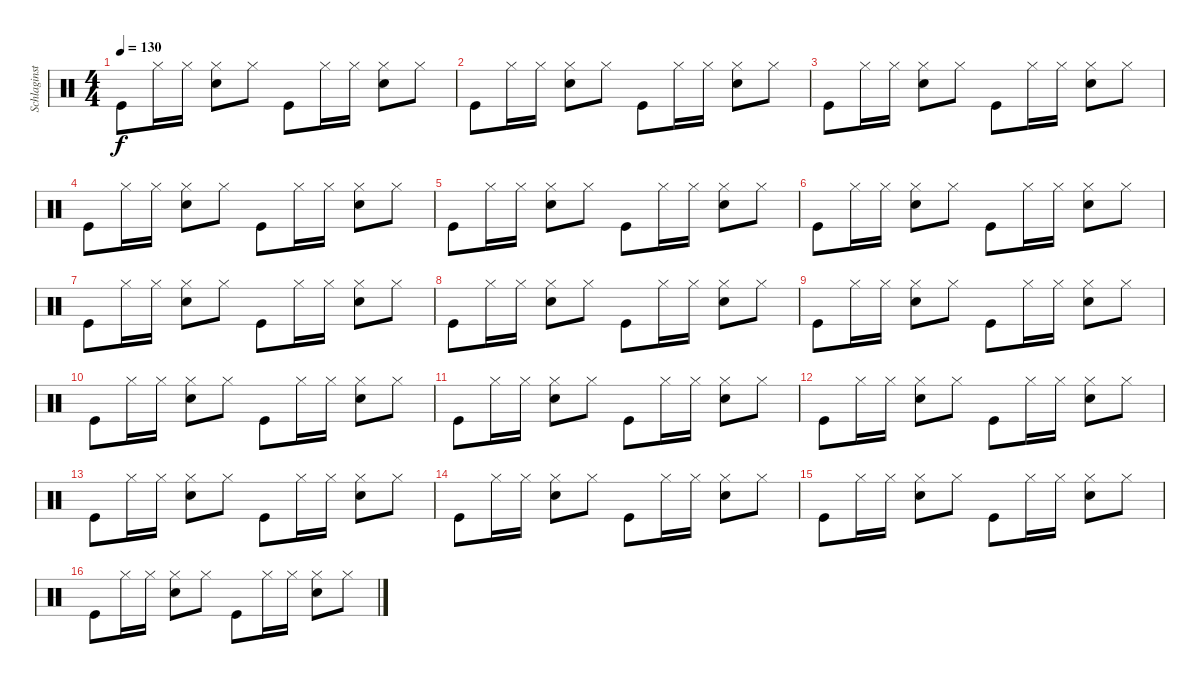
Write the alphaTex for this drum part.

\track ("Schlaginstrumente - Auswahl" "Schlaginst") {instrument percussion}
\staff {score}
\articulation defaults
\ts (4 4)
\tempo 130
\clef neutral
\ks c "Kick (hit)".8{dy f} "Hi-Hat (closed)".16 "Hi-Hat (closed)".16
("Snare (hit) 2" "Hi-Hat (closed)").8 "Hi-Hat (closed)".8 "Kick (hit)".8 "Hi-Hat (closed)".16 "Hi-Hat (closed)".16 ("Snare (hit) 2" "Hi-Hat (closed)").8 "Hi-Hat (closed)".8 |
"Kick (hit)".8 "Hi-Hat (closed)".16 "Hi-Hat (closed)".16 ("Snare (hit) 2" "Hi-Hat (closed)").8 "Hi-Hat (closed)".8 "Kick (hit)".8 "Hi-Hat (closed)".16 "Hi-Hat (closed)".16 ("Snare (hit) 2" "Hi-Hat (closed)").8 "Hi-Hat (closed)".8 |
"Kick (hit)".8 "Hi-Hat (closed)".16 "Hi-Hat (closed)".16 ("Snare (hit) 2" "Hi-Hat (closed)").8 "Hi-Hat (closed)".8 "Kick (hit)".8 "Hi-Hat (closed)".16 "Hi-Hat (closed)".16 ("Snare (hit) 2" "Hi-Hat (closed)").8 "Hi-Hat (closed)".8 |
"Kick (hit)".8 "Hi-Hat (closed)".16 "Hi-Hat (closed)".16 ("Snare (hit) 2" "Hi-Hat (closed)").8 "Hi-Hat (closed)".8 "Kick (hit)".8 "Hi-Hat (closed)".16 "Hi-Hat (closed)".16 ("Snare (hit) 2" "Hi-Hat (closed)").8 "Hi-Hat (closed)".8 |
"Kick (hit)".8 "Hi-Hat (closed)".16 "Hi-Hat (closed)".16 ("Snare (hit) 2" "Hi-Hat (closed)").8 "Hi-Hat (closed)".8 "Kick (hit)".8 "Hi-Hat (closed)".16 "Hi-Hat (closed)".16 ("Snare (hit) 2" "Hi-Hat (closed)").8 "Hi-Hat (closed)".8 |
"Kick (hit)".8 "Hi-Hat (closed)".16 "Hi-Hat (closed)".16 ("Snare (hit) 2" "Hi-Hat (closed)").8 "Hi-Hat (closed)".8 "Kick (hit)".8 "Hi-Hat (closed)".16 "Hi-Hat (closed)".16 ("Snare (hit) 2" "Hi-Hat (closed)").8 "Hi-Hat (closed)".8 |
"Kick (hit)".8 "Hi-Hat (closed)".16 "Hi-Hat (closed)".16 ("Snare (hit) 2" "Hi-Hat (closed)").8 "Hi-Hat (closed)".8 "Kick (hit)".8 "Hi-Hat (closed)".16 "Hi-Hat (closed)".16 ("Snare (hit) 2" "Hi-Hat (closed)").8 "Hi-Hat (closed)".8 |
"Kick (hit)".8 "Hi-Hat (closed)".16 "Hi-Hat (closed)".16 ("Snare (hit) 2" "Hi-Hat (closed)").8 "Hi-Hat (closed)".8 "Kick (hit)".8 "Hi-Hat (closed)".16 "Hi-Hat (closed)".16 ("Snare (hit) 2" "Hi-Hat (closed)").8 "Hi-Hat (closed)".8 |
"Kick (hit)".8 "Hi-Hat (closed)".16 "Hi-Hat (closed)".16 ("Snare (hit) 2" "Hi-Hat (closed)").8 "Hi-Hat (closed)".8 "Kick (hit)".8 "Hi-Hat (closed)".16 "Hi-Hat (closed)".16 ("Snare (hit) 2" "Hi-Hat (closed)").8 "Hi-Hat (closed)".8 |
"Kick (hit)".8 "Hi-Hat (closed)".16 "Hi-Hat (closed)".16 ("Snare (hit) 2" "Hi-Hat (closed)").8 "Hi-Hat (closed)".8 "Kick (hit)".8 "Hi-Hat (closed)".16 "Hi-Hat (closed)".16 ("Snare (hit) 2" "Hi-Hat (closed)").8 "Hi-Hat (closed)".8 |
"Kick (hit)".8 "Hi-Hat (closed)".16 "Hi-Hat (closed)".16 ("Snare (hit) 2" "Hi-Hat (closed)").8 "Hi-Hat (closed)".8 "Kick (hit)".8 "Hi-Hat (closed)".16 "Hi-Hat (closed)".16 ("Snare (hit) 2" "Hi-Hat (closed)").8 "Hi-Hat (closed)".8 |
"Kick (hit)".8 "Hi-Hat (closed)".16 "Hi-Hat (closed)".16 ("Snare (hit) 2" "Hi-Hat (closed)").8 "Hi-Hat (closed)".8 "Kick (hit)".8 "Hi-Hat (closed)".16 "Hi-Hat (closed)".16 ("Snare (hit) 2" "Hi-Hat (closed)").8 "Hi-Hat (closed)".8 |
"Kick (hit)".8 "Hi-Hat (closed)".16 "Hi-Hat (closed)".16 ("Snare (hit) 2" "Hi-Hat (closed)").8 "Hi-Hat (closed)".8 "Kick (hit)".8 "Hi-Hat (closed)".16 "Hi-Hat (closed)".16 ("Snare (hit) 2" "Hi-Hat (closed)").8 "Hi-Hat (closed)".8 |
"Kick (hit)".8 "Hi-Hat (closed)".16 "Hi-Hat (closed)".16 ("Snare (hit) 2" "Hi-Hat (closed)").8 "Hi-Hat (closed)".8 "Kick (hit)".8 "Hi-Hat (closed)".16 "Hi-Hat (closed)".16 ("Snare (hit) 2" "Hi-Hat (closed)").8 "Hi-Hat (closed)".8 |
"Kick (hit)".8 "Hi-Hat (closed)".16 "Hi-Hat (closed)".16 ("Snare (hit) 2" "Hi-Hat (closed)").8 "Hi-Hat (closed)".8 "Kick (hit)".8 "Hi-Hat (closed)".16 "Hi-Hat (closed)".16 ("Snare (hit) 2" "Hi-Hat (closed)").8 "Hi-Hat (closed)".8 |
"Kick (hit)".8 "Hi-Hat (closed)".16 "Hi-Hat (closed)".16 ("Snare (hit) 2" "Hi-Hat (closed)").8 "Hi-Hat (closed)".8 "Kick (hit)".8 "Hi-Hat (closed)".16 "Hi-Hat (closed)".16 ("Snare (hit) 2" "Hi-Hat (closed)").8 "Hi-Hat (closed)".8
